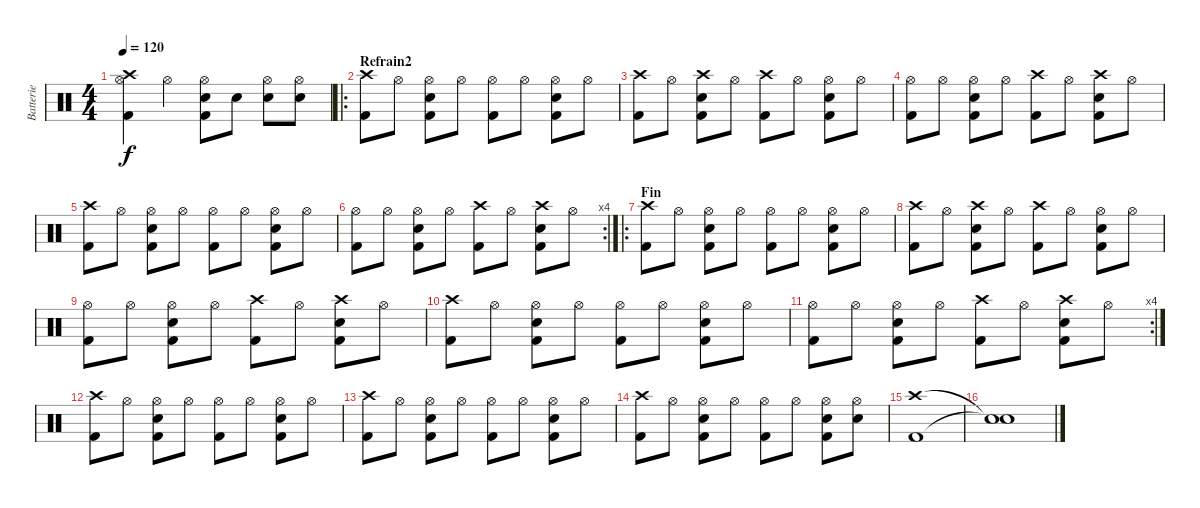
\track ("Batterie" "Batterie") {instrument percussion}
\staff {score}
\articulation defaults
\ts (4 4)
\tempo 120
\clef neutral
\ks c
("Crash high (hit)" "Hi-Hat (open)" "Kick (hit) 2").4{dy f} "Hi-Hat (open)".4 ("Electric Snare (hit)" "Hi-Hat (open)" "Kick (hit) 2").8 "Electric Snare (hit)".8 ("Electric Snare (hit)" "Hi-Hat (open)").8 ("Electric Snare (hit)" "Hi-Hat (open)").8 |
\ro
\section ("" "Refrain2")
("Crash high (hit)" "Kick (hit) 2").8 "Hi-Hat (open)".8 ("Electric Snare (hit)" "Hi-Hat (open)" "Kick (hit) 2").8 "Hi-Hat (open)".8 ("Hi-Hat (open)" "Kick (hit) 2").8 "Hi-Hat (open)".8 ("Electric Snare (hit)" "Hi-Hat (open)" "Kick (hit) 2").8 "Hi-Hat (open)".8 |
("Crash high (hit)" "Kick (hit) 2").8 "Hi-Hat (open)".8 ("Crash high (hit)" "Electric Snare (hit)" "Kick (hit) 2").8 "Hi-Hat (open)".8 ("Crash high (hit)" "Kick (hit) 2").8 "Hi-Hat (open)".8 ("Electric Snare (hit)" "Hi-Hat (open)" "Kick (hit) 2").8 "Hi-Hat (open)".8 |
("Hi-Hat (open)" "Kick (hit) 2").8 "Hi-Hat (open)".8 ("Electric Snare (hit)" "Hi-Hat (open)" "Kick (hit) 2").8 "Hi-Hat (open)".8 ("Crash high (hit)" "Kick (hit) 2").8 "Hi-Hat (open)".8 ("Crash high (hit)" "Electric Snare (hit)" "Kick (hit) 2").8 "Hi-Hat (open)".8 |
("Crash high (hit)" "Kick (hit) 2").8 "Hi-Hat (open)".8 ("Electric Snare (hit)" "Hi-Hat (open)" "Kick (hit) 2").8 "Hi-Hat (open)".8 ("Hi-Hat (open)" "Kick (hit) 2").8 "Hi-Hat (open)".8 ("Electric Snare (hit)" "Hi-Hat (open)" "Kick (hit) 2").8 "Hi-Hat (open)".8 |
\rc 4
("Hi-Hat (open)" "Kick (hit) 2").8 "Hi-Hat (open)".8 ("Electric Snare (hit)" "Hi-Hat (open)" "Kick (hit) 2").8 "Hi-Hat (open)".8 ("Crash high (hit)" "Kick (hit) 2").8 "Hi-Hat (open)".8 ("Crash high (hit)" "Electric Snare (hit)" "Kick (hit) 2").8 "Hi-Hat (open)".8 |
\ro
\section ("" "Fin")
("Crash high (hit)" "Kick (hit) 2").8 "Hi-Hat (open)".8 ("Electric Snare (hit)" "Hi-Hat (open)" "Kick (hit) 2").8 "Hi-Hat (open)".8 ("Hi-Hat (open)" "Kick (hit) 2").8 "Hi-Hat (open)".8 ("Electric Snare (hit)" "Hi-Hat (open)" "Kick (hit) 2").8 "Hi-Hat (open)".8 |
("Crash high (hit)" "Kick (hit) 2").8 "Hi-Hat (open)".8 ("Crash high (hit)" "Electric Snare (hit)" "Kick (hit) 2").8 "Hi-Hat (open)".8 ("Crash high (hit)" "Kick (hit) 2").8 "Hi-Hat (open)".8 ("Electric Snare (hit)" "Hi-Hat (open)" "Kick (hit) 2").8 "Hi-Hat (open)".8 |
("Hi-Hat (open)" "Kick (hit) 2").8 "Hi-Hat (open)".8 ("Electric Snare (hit)" "Hi-Hat (open)" "Kick (hit) 2").8 "Hi-Hat (open)".8 ("Crash high (hit)" "Kick (hit) 2").8 "Hi-Hat (open)".8 ("Crash high (hit)" "Electric Snare (hit)" "Kick (hit) 2").8 "Hi-Hat (open)".8 |
("Crash high (hit)" "Kick (hit) 2").8 "Hi-Hat (open)".8 ("Electric Snare (hit)" "Hi-Hat (open)" "Kick (hit) 2").8 "Hi-Hat (open)".8 ("Hi-Hat (open)" "Kick (hit) 2").8 "Hi-Hat (open)".8 ("Electric Snare (hit)" "Hi-Hat (open)" "Kick (hit) 2").8 "Hi-Hat (open)".8 |
\rc 4
("Hi-Hat (open)" "Kick (hit) 2").8 "Hi-Hat (open)".8 ("Electric Snare (hit)" "Hi-Hat (open)" "Kick (hit) 2").8 "Hi-Hat (open)".8 ("Crash high (hit)" "Kick (hit) 2").8 "Hi-Hat (open)".8 ("Crash high (hit)" "Electric Snare (hit)" "Kick (hit) 2").8 "Hi-Hat (open)".8 |
("Crash high (hit)" "Kick (hit) 2").8 "Hi-Hat (open)".8 ("Electric Snare (hit)" "Hi-Hat (open)" "Kick (hit) 2").8 "Hi-Hat (open)".8 ("Hi-Hat (open)" "Kick (hit) 2").8 "Hi-Hat (open)".8 ("Electric Snare (hit)" "Hi-Hat (open)" "Kick (hit) 2").8 "Hi-Hat (open)".8 |
("Crash high (hit)" "Kick (hit) 2").8 "Hi-Hat (open)".8 ("Electric Snare (hit)" "Hi-Hat (open)" "Kick (hit) 2").8 "Hi-Hat (open)".8 ("Hi-Hat (open)" "Kick (hit) 2").8 "Hi-Hat (open)".8 ("Electric Snare (hit)" "Hi-Hat (open)" "Kick (hit) 2").8 "Hi-Hat (open)".8 |
("Crash high (hit)" "Kick (hit) 2").8 "Hi-Hat (open)".8 ("Electric Snare (hit)" "Hi-Hat (open)" "Kick (hit) 2").8 "Hi-Hat (open)".8 ("Hi-Hat (open)" "Kick (hit) 2").8 "Hi-Hat (open)".8 ("Electric Snare (hit)" "Hi-Hat (open)" "Kick (hit) 2").8 ("Electric Snare (hit)" "Hi-Hat (open)").8 |
("Crash high (hit)" "Kick (hit) 2").1 |
("Snare (hit)"{t} "Snare (hit)"{t}).1
